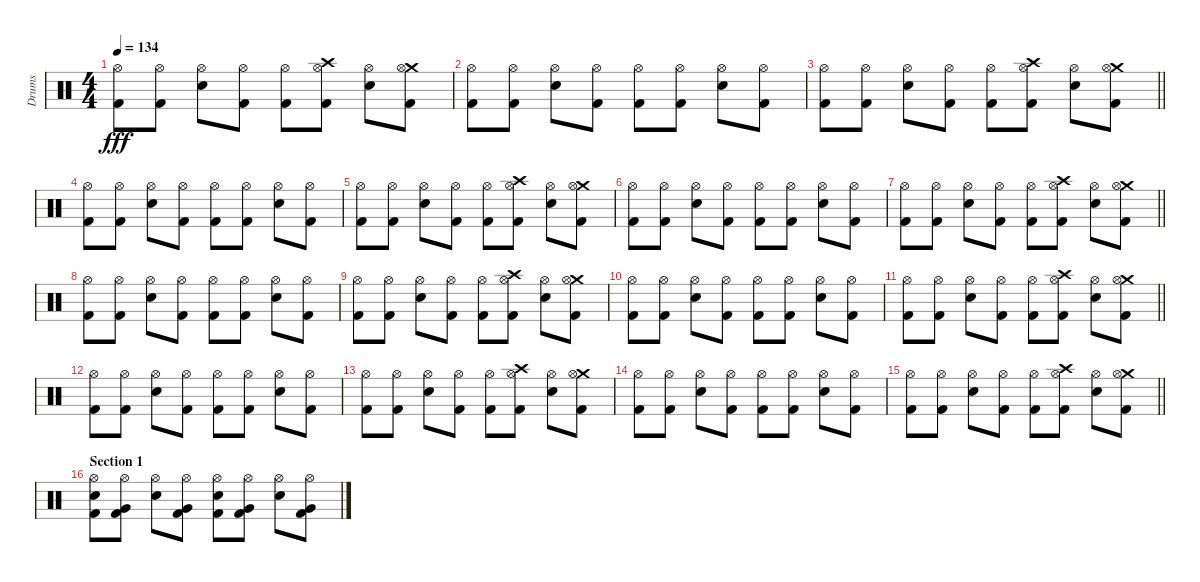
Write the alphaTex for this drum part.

\track ("Drums" "Drums") {instrument percussion}
\staff {score}
\articulation defaults
\ts (4 4)
\tempo 134
\clef neutral
\ks c
("Hi-Hat (open)" "Kick (hit) 2").8{dy fff} ("Hi-Hat (open)" "Kick (hit) 2").8 ("Hi-Hat (open)" "Electric Snare (hit)").8 ("Hi-Hat (open)" "Kick (hit) 2").8 ("Hi-Hat (open)" "Kick (hit) 2").8 ("Crash high (hit)" "Hi-Hat (open)" "Kick (hit) 2").8 ("Hi-Hat (open)" "Electric Snare (hit)").8 ("Crash medium (hit)" "Hi-Hat (open)" "Kick (hit) 2").8 |
("Hi-Hat (open)" "Kick (hit) 2").8 ("Hi-Hat (open)" "Kick (hit) 2").8 ("Hi-Hat (open)" "Electric Snare (hit)").8 ("Hi-Hat (open)" "Kick (hit) 2").8 ("Hi-Hat (open)" "Kick (hit) 2").8 ("Hi-Hat (open)" "Kick (hit) 2").8 ("Hi-Hat (open)" "Electric Snare (hit)").8 ("Hi-Hat (open)" "Kick (hit) 2").8 |
\barLineRight lightlight
("Hi-Hat (open)" "Kick (hit) 2").8 ("Hi-Hat (open)" "Kick (hit) 2").8 ("Hi-Hat (open)" "Electric Snare (hit)").8 ("Hi-Hat (open)" "Kick (hit) 2").8 ("Hi-Hat (open)" "Kick (hit) 2").8 ("Crash high (hit)" "Hi-Hat (open)" "Kick (hit) 2").8 ("Hi-Hat (open)" "Electric Snare (hit)").8 ("Crash medium (hit)" "Hi-Hat (open)" "Kick (hit) 2").8 |
("Hi-Hat (open)" "Kick (hit) 2").8 ("Hi-Hat (open)" "Kick (hit) 2").8 ("Hi-Hat (open)" "Electric Snare (hit)").8 ("Hi-Hat (open)" "Kick (hit) 2").8 ("Hi-Hat (open)" "Kick (hit) 2").8 ("Hi-Hat (open)" "Kick (hit) 2").8 ("Hi-Hat (open)" "Electric Snare (hit)").8 ("Hi-Hat (open)" "Kick (hit) 2").8 |
("Hi-Hat (open)" "Kick (hit) 2").8 ("Hi-Hat (open)" "Kick (hit) 2").8 ("Hi-Hat (open)" "Electric Snare (hit)").8 ("Hi-Hat (open)" "Kick (hit) 2").8 ("Hi-Hat (open)" "Kick (hit) 2").8 ("Crash high (hit)" "Hi-Hat (open)" "Kick (hit) 2").8 ("Hi-Hat (open)" "Electric Snare (hit)").8 ("Crash medium (hit)" "Hi-Hat (open)" "Kick (hit) 2").8 |
("Hi-Hat (open)" "Kick (hit) 2").8 ("Hi-Hat (open)" "Kick (hit) 2").8 ("Hi-Hat (open)" "Electric Snare (hit)").8 ("Hi-Hat (open)" "Kick (hit) 2").8 ("Hi-Hat (open)" "Kick (hit) 2").8 ("Hi-Hat (open)" "Kick (hit) 2").8 ("Hi-Hat (open)" "Electric Snare (hit)").8 ("Hi-Hat (open)" "Kick (hit) 2").8 |
\barLineRight lightlight
("Hi-Hat (open)" "Kick (hit) 2").8 ("Hi-Hat (open)" "Kick (hit) 2").8 ("Hi-Hat (open)" "Electric Snare (hit)").8 ("Hi-Hat (open)" "Kick (hit) 2").8 ("Hi-Hat (open)" "Kick (hit) 2").8 ("Crash high (hit)" "Hi-Hat (open)" "Kick (hit) 2").8 ("Hi-Hat (open)" "Electric Snare (hit)").8 ("Crash medium (hit)" "Hi-Hat (open)" "Kick (hit) 2").8 |
("Hi-Hat (open)" "Kick (hit) 2").8 ("Hi-Hat (open)" "Kick (hit) 2").8 ("Hi-Hat (open)" "Electric Snare (hit)").8 ("Hi-Hat (open)" "Kick (hit) 2").8 ("Hi-Hat (open)" "Kick (hit) 2").8 ("Hi-Hat (open)" "Kick (hit) 2").8 ("Hi-Hat (open)" "Electric Snare (hit)").8 ("Hi-Hat (open)" "Kick (hit) 2").8 |
("Hi-Hat (open)" "Kick (hit) 2").8 ("Hi-Hat (open)" "Kick (hit) 2").8 ("Hi-Hat (open)" "Electric Snare (hit)").8 ("Hi-Hat (open)" "Kick (hit) 2").8 ("Hi-Hat (open)" "Kick (hit) 2").8 ("Crash high (hit)" "Hi-Hat (open)" "Kick (hit) 2").8 ("Hi-Hat (open)" "Electric Snare (hit)").8 ("Crash medium (hit)" "Hi-Hat (open)" "Kick (hit) 2").8 |
("Hi-Hat (open)" "Kick (hit) 2").8 ("Hi-Hat (open)" "Kick (hit) 2").8 ("Hi-Hat (open)" "Electric Snare (hit)").8 ("Hi-Hat (open)" "Kick (hit) 2").8 ("Hi-Hat (open)" "Kick (hit) 2").8 ("Hi-Hat (open)" "Kick (hit) 2").8 ("Hi-Hat (open)" "Electric Snare (hit)").8 ("Hi-Hat (open)" "Kick (hit) 2").8 |
\barLineRight lightlight
("Hi-Hat (open)" "Kick (hit) 2").8 ("Hi-Hat (open)" "Kick (hit) 2").8 ("Hi-Hat (open)" "Electric Snare (hit)").8 ("Hi-Hat (open)" "Kick (hit) 2").8 ("Hi-Hat (open)" "Kick (hit) 2").8 ("Crash high (hit)" "Hi-Hat (open)" "Kick (hit) 2").8 ("Hi-Hat (open)" "Electric Snare (hit)").8 ("Crash medium (hit)" "Hi-Hat (open)" "Kick (hit) 2").8 |
("Hi-Hat (open)" "Kick (hit) 2").8 ("Hi-Hat (open)" "Kick (hit) 2").8 ("Hi-Hat (open)" "Electric Snare (hit)").8 ("Hi-Hat (open)" "Kick (hit) 2").8 ("Hi-Hat (open)" "Kick (hit) 2").8 ("Hi-Hat (open)" "Kick (hit) 2").8 ("Hi-Hat (open)" "Electric Snare (hit)").8 ("Hi-Hat (open)" "Kick (hit) 2").8 |
("Hi-Hat (open)" "Kick (hit) 2").8 ("Hi-Hat (open)" "Kick (hit) 2").8 ("Hi-Hat (open)" "Electric Snare (hit)").8 ("Hi-Hat (open)" "Kick (hit) 2").8 ("Hi-Hat (open)" "Kick (hit) 2").8 ("Crash high (hit)" "Hi-Hat (open)" "Kick (hit) 2").8 ("Hi-Hat (open)" "Electric Snare (hit)").8 ("Crash medium (hit)" "Hi-Hat (open)" "Kick (hit) 2").8 |
("Hi-Hat (open)" "Kick (hit) 2").8 ("Hi-Hat (open)" "Kick (hit) 2").8 ("Hi-Hat (open)" "Electric Snare (hit)").8 ("Hi-Hat (open)" "Kick (hit) 2").8 ("Hi-Hat (open)" "Kick (hit) 2").8 ("Hi-Hat (open)" "Kick (hit) 2").8 ("Hi-Hat (open)" "Electric Snare (hit)").8 ("Hi-Hat (open)" "Kick (hit) 2").8 |
\barLineRight lightlight
("Hi-Hat (open)" "Kick (hit) 2").8 ("Hi-Hat (open)" "Kick (hit) 2").8 ("Hi-Hat (open)" "Electric Snare (hit)").8 ("Hi-Hat (open)" "Kick (hit) 2").8 ("Hi-Hat (open)" "Kick (hit) 2").8 ("Crash high (hit)" "Hi-Hat (open)" "Kick (hit) 2").8 ("Hi-Hat (open)" "Electric Snare (hit)").8 ("Crash medium (hit)" "Hi-Hat (open)" "Kick (hit) 2").8 |
\section ("" "Section 1")
("Hi-Hat (open)" "Electric Snare (hit)" "Kick (hit) 2").8 ("Hi-Hat (open)" "Very Low Tom (hit)" "Kick (hit) 2").8 ("Hi-Hat (open)" "Electric Snare (hit)").8 ("Hi-Hat (open)" "Very Low Tom (hit)" "Kick (hit) 2").8 ("Hi-Hat (open)" "Electric Snare (hit)" "Kick (hit) 2").8 ("Hi-Hat (open)" "Very Low Tom (hit)" "Kick (hit) 2").8 ("Hi-Hat (open)" "Electric Snare (hit)").8 ("Hi-Hat (open)" "Very Low Tom (hit)" "Kick (hit) 2").8
